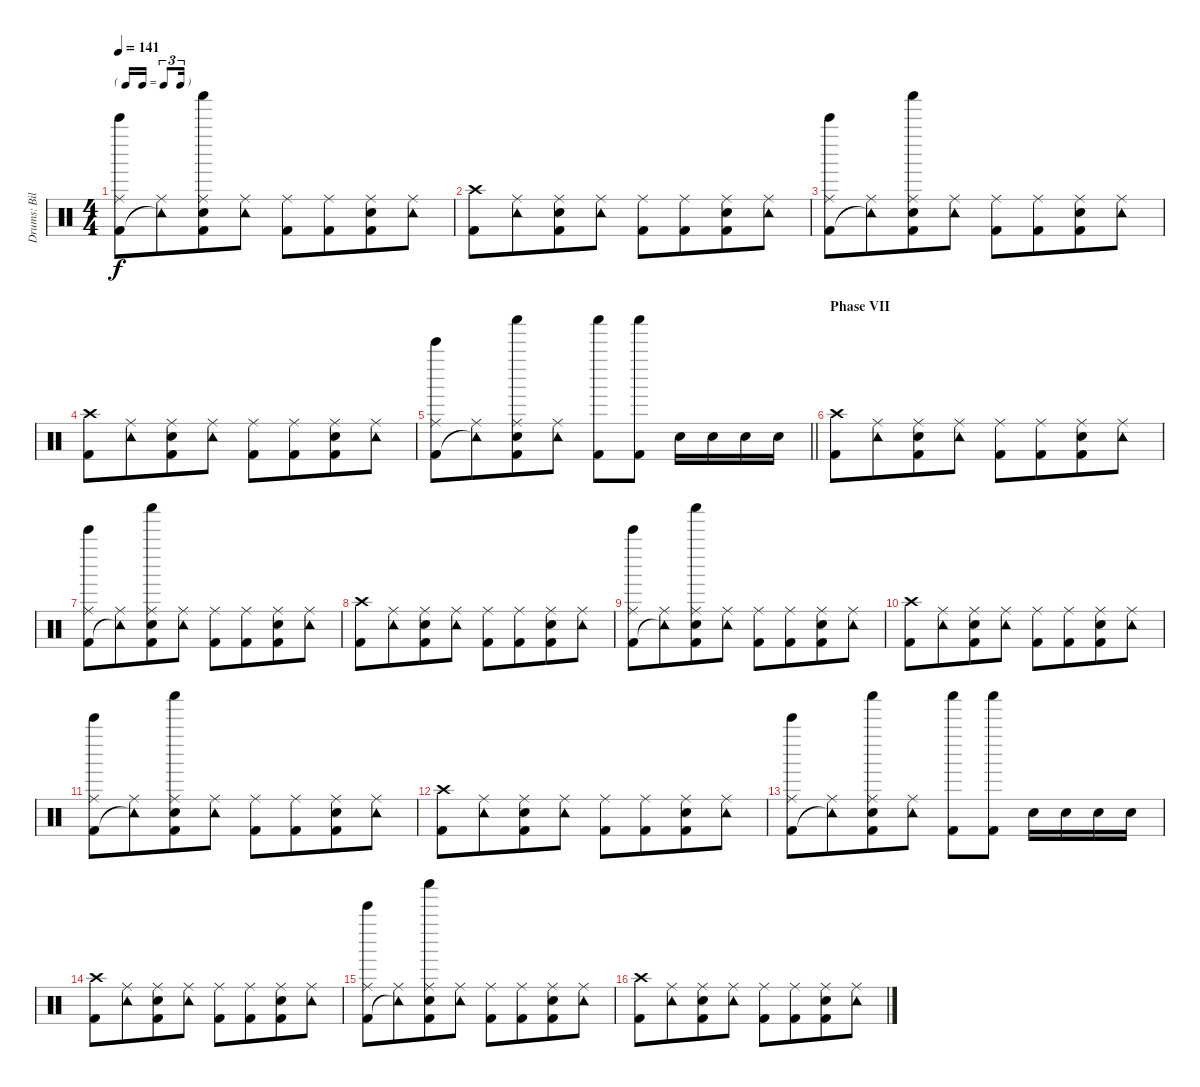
\track ("Drums: Bill" "Drums: Bil") {instrument percussion}
\staff {score}
\articulation defaults
\ts (4 4)
\tf triplet16th
\tempo 141
\clef neutral
\ks c
("Ride (middle)" "Kick (hit) 2" "Bell Tree (hit)").8{dy f} ("Ride (middle)" "Tambourine (hit)"{t}).8{beam merge} ("Ride (middle)" "Electric Snare (hit)" "Kick (hit) 2" "Shaker (hit)").8 ("Ride (middle)" "Tambourine (hit)").8 ("Ride (middle)" "Kick (hit) 2").8 ("Ride (middle)" "Kick (hit) 2").8{beam merge} ("Ride (middle)" "Electric Snare (hit)" "Kick (hit) 2").8 ("Ride (middle)" "Tambourine (hit)").8 |
("Crash high (hit)" "Kick (hit) 2").8 ("Ride (middle)" "Tambourine (hit)").8{beam merge} ("Ride (middle)" "Electric Snare (hit)" "Kick (hit) 2").8 ("Ride (middle)" "Tambourine (hit)").8 ("Ride (middle)" "Kick (hit) 2").8 ("Ride (middle)" "Kick (hit) 2").8{beam merge} ("Ride (middle)" "Electric Snare (hit)" "Kick (hit) 2").8 ("Ride (middle)" "Tambourine (hit)").8 |
("Ride (middle)" "Kick (hit) 2" "Bell Tree (hit)").8 ("Ride (middle)" "Tambourine (hit)"{t}).8{beam merge} ("Ride (middle)" "Electric Snare (hit)" "Kick (hit) 2" "Shaker (hit)").8 ("Ride (middle)" "Tambourine (hit)").8 ("Ride (middle)" "Kick (hit) 2").8 ("Ride (middle)" "Kick (hit) 2").8{beam merge} ("Ride (middle)" "Electric Snare (hit)" "Kick (hit) 2").8 ("Ride (middle)" "Tambourine (hit)").8 |
("Crash high (hit)" "Kick (hit) 2").8 ("Ride (middle)" "Tambourine (hit)").8{beam merge} ("Ride (middle)" "Electric Snare (hit)" "Kick (hit) 2").8 ("Ride (middle)" "Tambourine (hit)").8 ("Ride (middle)" "Kick (hit) 2").8 ("Ride (middle)" "Kick (hit) 2").8{beam merge} ("Ride (middle)" "Electric Snare (hit)" "Kick (hit) 2").8 ("Ride (middle)" "Tambourine (hit)").8 |
\barLineRight lightlight
("Ride (middle)" "Kick (hit) 2" "Bell Tree (hit)").8 ("Ride (middle)" "Tambourine (hit)"{t}).8{beam merge} ("Ride (middle)" "Electric Snare (hit)" "Kick (hit) 2" "Shaker (hit)").8 ("Ride (middle)" "Tambourine (hit)").8 ("Shaker (hit)" "Kick (hit) 2").8 ("Shaker (hit)" "Kick (hit) 2").8 "Electric Snare (hit)".16 "Electric Snare (hit)".16 "Electric Snare (hit)".16 "Electric Snare (hit)".16 |
\section ("" "Phase VII")
("Crash high (hit)" "Kick (hit) 2").8 ("Ride (middle)" "Tambourine (hit)").8{beam merge} ("Ride (middle)" "Electric Snare (hit)" "Kick (hit) 2").8 ("Ride (middle)" "Tambourine (hit)").8 ("Ride (middle)" "Kick (hit) 2").8 ("Ride (middle)" "Kick (hit) 2").8{beam merge} ("Ride (middle)" "Electric Snare (hit)" "Kick (hit) 2").8 ("Ride (middle)" "Tambourine (hit)").8 |
("Ride (middle)" "Kick (hit) 2" "Bell Tree (hit)").8 ("Ride (middle)" "Tambourine (hit)"{t}).8{beam merge} ("Ride (middle)" "Electric Snare (hit)" "Kick (hit) 2" "Shaker (hit)").8 ("Ride (middle)" "Tambourine (hit)").8 ("Ride (middle)" "Kick (hit) 2").8 ("Ride (middle)" "Kick (hit) 2").8{beam merge} ("Ride (middle)" "Electric Snare (hit)" "Kick (hit) 2").8 ("Ride (middle)" "Tambourine (hit)").8 |
("Crash high (hit)" "Kick (hit) 2").8 ("Ride (middle)" "Tambourine (hit)").8{beam merge} ("Ride (middle)" "Electric Snare (hit)" "Kick (hit) 2").8 ("Ride (middle)" "Tambourine (hit)").8 ("Ride (middle)" "Kick (hit) 2").8 ("Ride (middle)" "Kick (hit) 2").8{beam merge} ("Ride (middle)" "Electric Snare (hit)" "Kick (hit) 2").8 ("Ride (middle)" "Tambourine (hit)").8 |
("Ride (middle)" "Kick (hit) 2" "Bell Tree (hit)").8 ("Ride (middle)" "Tambourine (hit)"{t}).8{beam merge} ("Ride (middle)" "Electric Snare (hit)" "Kick (hit) 2" "Shaker (hit)").8 ("Ride (middle)" "Tambourine (hit)").8 ("Ride (middle)" "Kick (hit) 2").8 ("Ride (middle)" "Kick (hit) 2").8{beam merge} ("Ride (middle)" "Electric Snare (hit)" "Kick (hit) 2").8 ("Ride (middle)" "Tambourine (hit)").8 |
("Crash high (hit)" "Kick (hit) 2").8 ("Ride (middle)" "Tambourine (hit)").8{beam merge} ("Ride (middle)" "Electric Snare (hit)" "Kick (hit) 2").8 ("Ride (middle)" "Tambourine (hit)").8 ("Ride (middle)" "Kick (hit) 2").8 ("Ride (middle)" "Kick (hit) 2").8{beam merge} ("Ride (middle)" "Electric Snare (hit)" "Kick (hit) 2").8 ("Ride (middle)" "Tambourine (hit)").8 |
("Ride (middle)" "Kick (hit) 2" "Bell Tree (hit)").8 ("Ride (middle)" "Tambourine (hit)"{t}).8{beam merge} ("Ride (middle)" "Electric Snare (hit)" "Kick (hit) 2" "Shaker (hit)").8 ("Ride (middle)" "Tambourine (hit)").8 ("Ride (middle)" "Kick (hit) 2").8 ("Ride (middle)" "Kick (hit) 2").8{beam merge} ("Ride (middle)" "Electric Snare (hit)" "Kick (hit) 2").8 ("Ride (middle)" "Tambourine (hit)").8 |
("Crash high (hit)" "Kick (hit) 2").8 ("Ride (middle)" "Tambourine (hit)").8{beam merge} ("Ride (middle)" "Electric Snare (hit)" "Kick (hit) 2").8 ("Ride (middle)" "Tambourine (hit)").8 ("Ride (middle)" "Kick (hit) 2").8 ("Ride (middle)" "Kick (hit) 2").8{beam merge} ("Ride (middle)" "Electric Snare (hit)" "Kick (hit) 2").8 ("Ride (middle)" "Tambourine (hit)").8 |
("Ride (middle)" "Kick (hit) 2" "Bell Tree (hit)").8 ("Ride (middle)" "Tambourine (hit)"{t}).8{beam merge} ("Ride (middle)" "Electric Snare (hit)" "Kick (hit) 2" "Shaker (hit)").8 ("Ride (middle)" "Tambourine (hit)").8 ("Shaker (hit)" "Kick (hit) 2").8 ("Shaker (hit)" "Kick (hit) 2").8 "Electric Snare (hit)".16 "Electric Snare (hit)".16 "Electric Snare (hit)".16 "Electric Snare (hit)".16 |
("Crash high (hit)" "Kick (hit) 2").8 ("Ride (middle)" "Tambourine (hit)").8{beam merge} ("Ride (middle)" "Electric Snare (hit)" "Kick (hit) 2").8 ("Ride (middle)" "Tambourine (hit)").8 ("Ride (middle)" "Kick (hit) 2").8 ("Ride (middle)" "Kick (hit) 2").8{beam merge} ("Ride (middle)" "Electric Snare (hit)" "Kick (hit) 2").8 ("Ride (middle)" "Tambourine (hit)").8 |
("Ride (middle)" "Kick (hit) 2" "Bell Tree (hit)").8 ("Ride (middle)" "Tambourine (hit)"{t}).8{beam merge} ("Ride (middle)" "Electric Snare (hit)" "Kick (hit) 2" "Shaker (hit)").8 ("Ride (middle)" "Tambourine (hit)").8 ("Ride (middle)" "Kick (hit) 2").8 ("Ride (middle)" "Kick (hit) 2").8{beam merge} ("Ride (middle)" "Electric Snare (hit)" "Kick (hit) 2").8 ("Ride (middle)" "Tambourine (hit)").8 |
("Crash high (hit)" "Kick (hit) 2").8 ("Ride (middle)" "Tambourine (hit)").8{beam merge} ("Ride (middle)" "Electric Snare (hit)" "Kick (hit) 2").8 ("Ride (middle)" "Tambourine (hit)").8 ("Ride (middle)" "Kick (hit) 2").8 ("Ride (middle)" "Kick (hit) 2").8{beam merge} ("Ride (middle)" "Electric Snare (hit)" "Kick (hit) 2").8 ("Ride (middle)" "Tambourine (hit)").8
